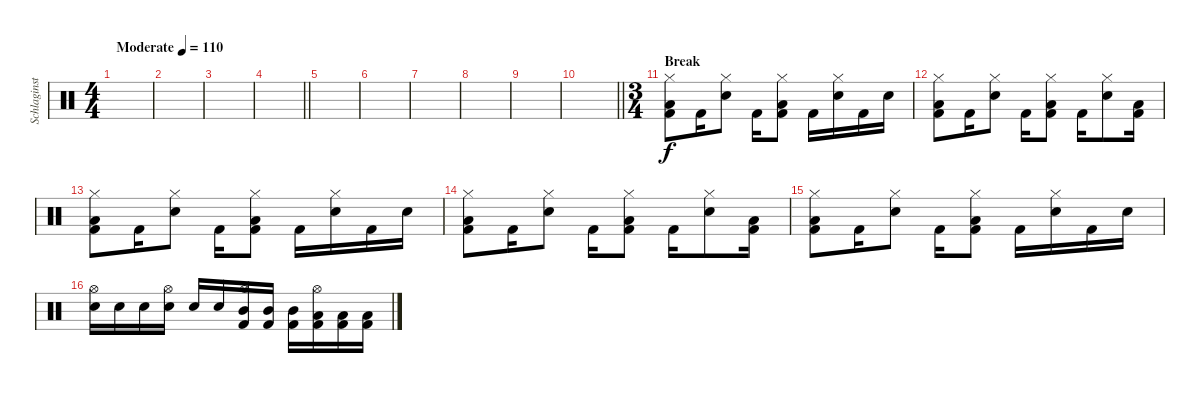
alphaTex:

\track ("Schlaginstrumente - Auswahl" "Schlaginst") {instrument percussion}
\staff {score}
\articulation defaults
\ts (4 4)
\tempo (110 "Moderate")
\clef neutral
\ks c
|
|
|
\barLineRight lightlight
|
|
|
|
|
|
\barLineRight lightlight
|
\ts (3 4)
\section ("" "Break")
("Hi-Hat (closed)" "Low Tom (hit)" "Kick (hit) 2").8 "Kick (hit) 2".16 ("Hi-Hat (closed)" "Snare (hit) 2").8 "Kick (hit) 2".16 ("Hi-Hat (closed)" "Low Tom (hit)" "Kick (hit) 2").8 "Kick (hit) 2".16 ("Hi-Hat (closed)" "Snare (hit) 2").16 "Kick (hit) 2".16 "Snare (hit) 2".16 |
("Hi-Hat (closed)" "Low Tom (hit)" "Kick (hit) 2").8 "Kick (hit) 2".16 ("Hi-Hat (closed)" "Snare (hit) 2").8 "Kick (hit) 2".16 ("Hi-Hat (closed)" "Low Tom (hit)" "Kick (hit) 2").8 "Kick (hit) 2".16 ("Hi-Hat (closed)" "Snare (hit) 2").8 ("Low Tom (hit)" "Kick (hit) 2").16 |
("Hi-Hat (closed)" "Low Tom (hit)" "Kick (hit) 2").8 "Kick (hit) 2".16 ("Hi-Hat (closed)" "Snare (hit) 2").8 "Kick (hit) 2".16 ("Hi-Hat (closed)" "Low Tom (hit)" "Kick (hit) 2").8 "Kick (hit) 2".16 ("Hi-Hat (closed)" "Snare (hit) 2").16 "Kick (hit) 2".16 "Snare (hit) 2".16 |
("Hi-Hat (closed)" "Low Tom (hit)" "Kick (hit) 2").8 "Kick (hit) 2".16 ("Hi-Hat (closed)" "Snare (hit) 2").8 "Kick (hit) 2".16 ("Hi-Hat (closed)" "Low Tom (hit)" "Kick (hit) 2").8 "Kick (hit) 2".16 ("Hi-Hat (closed)" "Snare (hit) 2").8 ("Low Tom (hit)" "Kick (hit) 2").16 |
("Hi-Hat (closed)" "Low Tom (hit)" "Kick (hit) 2").8 "Kick (hit) 2".16 ("Hi-Hat (closed)" "Snare (hit) 2").8 "Kick (hit) 2".16 ("Hi-Hat (closed)" "Low Tom (hit)" "Kick (hit) 2").8 "Kick (hit) 2".16 ("Hi-Hat (closed)" "Snare (hit) 2").16 "Kick (hit) 2".16 "Snare (hit) 2".16 |
("Hi-Hat (open)" "Snare (hit) 2").16 "Snare (hit) 2".16 "Snare (hit) 2".16 ("Hi-Hat (open)" "Snare (hit) 2").16 "Snare (hit) 2".16 "Snare (hit) 2".16 ("Hi-Hat (open)" "Mid Tom (hit)" "Kick (hit) 2").16 ("Mid Tom (hit)" "Kick (hit) 2").16 ("Mid Tom (hit)" "Kick (hit) 2").16 ("Hi-Hat (open)" "Low Tom (hit)" "Kick (hit) 2").16 ("Low Tom (hit)" "Kick (hit) 2").16 ("Low Tom (hit)" "Kick (hit) 2").16
